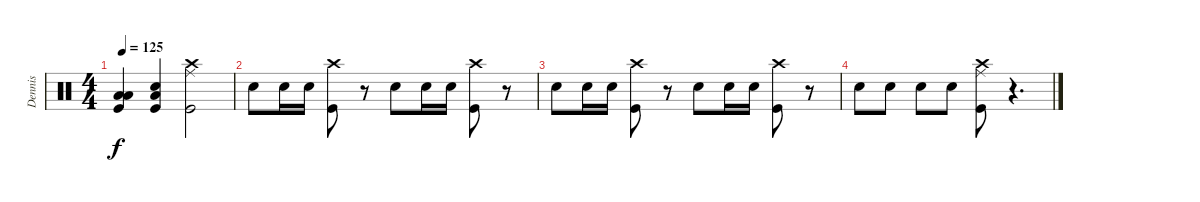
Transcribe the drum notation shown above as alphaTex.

\track ("Dennis" "Dennis") {instrument percussion}
\staff {score}
\articulation defaults
\ts (4 4)
\tempo 125
\clef neutral
\ks c
("Kick (hit)" "Low Floor Tom (hit)" "Low Tom (hit)").4{dy f} ("Kick (hit)" "Low Floor Tom (hit)" "Electric Snare (hit)").4 ("Kick (hit)" "Crash high (hit)" "Ride (middle)").2 |
"Electric Snare (hit)".8 "Electric Snare (hit)".16 "Electric Snare (hit)".16 ("Crash high (hit)" "Kick (hit)").8 r.8 "Electric Snare (hit)".8 "Electric Snare (hit)".16 "Electric Snare (hit)".16 ("Crash high (hit)" "Kick (hit)").8 r.8 |
"Electric Snare (hit)".8 "Electric Snare (hit)".16 "Electric Snare (hit)".16 ("Crash high (hit)" "Kick (hit)").8 r.8 "Electric Snare (hit)".8 "Electric Snare (hit)".16 "Electric Snare (hit)".16 ("Crash high (hit)" "Kick (hit)").8 r.8 |
"Electric Snare (hit)".8 "Electric Snare (hit)".8 "Electric Snare (hit)".8 "Electric Snare (hit)".8 ("Ride (middle)" "Crash high (hit)" "Kick (hit)").8 r.4{d}
